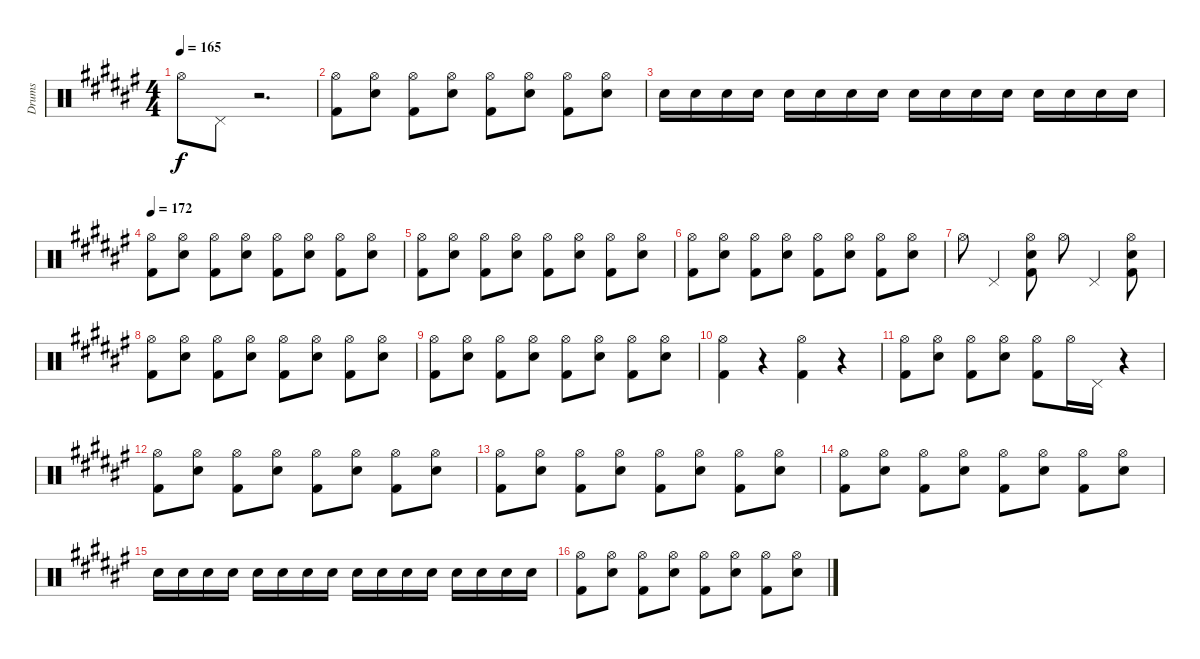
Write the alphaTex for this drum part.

\track ("Drums" "Drums") {instrument percussion}
\staff {score}
\articulation defaults
\ts (4 4)
\tempo 165
\clef neutral
\ks d#minor "Hi-Hat (open)".8{dy f} "Pedal Hi-Hat (hit)".8
r.2{d} |
("Hi-Hat (open)" "Kick (hit) 2").8 ("Hi-Hat (open)" "Electric Snare (hit)").8 ("Hi-Hat (open)" "Kick (hit) 2").8 ("Hi-Hat (open)" "Electric Snare (hit)").8 ("Hi-Hat (open)" "Kick (hit) 2").8 ("Hi-Hat (open)" "Electric Snare (hit)").8 ("Hi-Hat (open)" "Kick (hit) 2").8 ("Hi-Hat (open)" "Electric Snare (hit)").8 |
"Electric Snare (hit)".16 "Electric Snare (hit)".16 "Electric Snare (hit)".16 "Electric Snare (hit)".16 "Electric Snare (hit)".16 "Electric Snare (hit)".16 "Electric Snare (hit)".16 "Electric Snare (hit)".16 "Electric Snare (hit)".16 "Electric Snare (hit)".16 "Electric Snare (hit)".16 "Electric Snare (hit)".16 "Electric Snare (hit)".16 "Electric Snare (hit)".16 "Electric Snare (hit)".16 "Electric Snare (hit)".16 |
\tempo 172
("Hi-Hat (open)" "Kick (hit) 2").8 ("Hi-Hat (open)" "Electric Snare (hit)").8 ("Hi-Hat (open)" "Kick (hit) 2").8 ("Hi-Hat (open)" "Electric Snare (hit)").8 ("Hi-Hat (open)" "Kick (hit) 2").8 ("Hi-Hat (open)" "Electric Snare (hit)").8 ("Hi-Hat (open)" "Kick (hit) 2").8 ("Hi-Hat (open)" "Electric Snare (hit)").8 |
("Hi-Hat (open)" "Kick (hit) 2").8 ("Hi-Hat (open)" "Electric Snare (hit)").8 ("Hi-Hat (open)" "Kick (hit) 2").8 ("Hi-Hat (open)" "Electric Snare (hit)").8 ("Hi-Hat (open)" "Kick (hit) 2").8 ("Hi-Hat (open)" "Electric Snare (hit)").8 ("Hi-Hat (open)" "Kick (hit) 2").8 ("Hi-Hat (open)" "Electric Snare (hit)").8 |
("Hi-Hat (open)" "Kick (hit) 2").8 ("Hi-Hat (open)" "Electric Snare (hit)").8 ("Hi-Hat (open)" "Kick (hit) 2").8 ("Hi-Hat (open)" "Electric Snare (hit)").8 ("Hi-Hat (open)" "Kick (hit) 2").8 ("Hi-Hat (open)" "Electric Snare (hit)").8 ("Hi-Hat (open)" "Kick (hit) 2").8 ("Hi-Hat (open)" "Electric Snare (hit)").8 |
"Hi-Hat (open)".8 "Pedal Hi-Hat (hit)".4 ("Hi-Hat (open)" "Electric Snare (hit)" "Kick (hit) 2").8 "Hi-Hat (open)".8 "Pedal Hi-Hat (hit)".4 ("Hi-Hat (open)" "Electric Snare (hit)" "Kick (hit) 2").8 |
("Hi-Hat (open)" "Kick (hit) 2").8 ("Hi-Hat (open)" "Electric Snare (hit)").8 ("Hi-Hat (open)" "Kick (hit) 2").8 ("Hi-Hat (open)" "Electric Snare (hit)").8 ("Hi-Hat (open)" "Kick (hit) 2").8 ("Hi-Hat (open)" "Electric Snare (hit)").8 ("Hi-Hat (open)" "Kick (hit) 2").8 ("Hi-Hat (open)" "Electric Snare (hit)").8 |
("Hi-Hat (open)" "Kick (hit) 2").8 ("Hi-Hat (open)" "Electric Snare (hit)").8 ("Hi-Hat (open)" "Kick (hit) 2").8 ("Hi-Hat (open)" "Electric Snare (hit)").8 ("Hi-Hat (open)" "Kick (hit) 2").8 ("Hi-Hat (open)" "Electric Snare (hit)").8 ("Hi-Hat (open)" "Kick (hit) 2").8 ("Hi-Hat (open)" "Electric Snare (hit)").8 |
("Hi-Hat (open)" "Kick (hit) 2").4 r.4 ("Hi-Hat (open)" "Kick (hit) 2").4 r.4 |
("Hi-Hat (open)" "Kick (hit) 2").8 ("Hi-Hat (open)" "Electric Snare (hit)").8 ("Hi-Hat (open)" "Kick (hit) 2").8 ("Hi-Hat (open)" "Electric Snare (hit)").8 ("Hi-Hat (open)" "Kick (hit) 2").8 "Hi-Hat (open)".16 "Pedal Hi-Hat (hit)".16 r.4 |
("Hi-Hat (open)" "Kick (hit) 2").8 ("Hi-Hat (open)" "Electric Snare (hit)").8 ("Hi-Hat (open)" "Kick (hit) 2").8 ("Hi-Hat (open)" "Electric Snare (hit)").8 ("Hi-Hat (open)" "Kick (hit) 2").8 ("Hi-Hat (open)" "Electric Snare (hit)").8 ("Hi-Hat (open)" "Kick (hit) 2").8 ("Hi-Hat (open)" "Electric Snare (hit)").8 |
("Hi-Hat (open)" "Kick (hit) 2").8 ("Hi-Hat (open)" "Electric Snare (hit)").8 ("Hi-Hat (open)" "Kick (hit) 2").8 ("Hi-Hat (open)" "Electric Snare (hit)").8 ("Hi-Hat (open)" "Kick (hit) 2").8 ("Hi-Hat (open)" "Electric Snare (hit)").8 ("Hi-Hat (open)" "Kick (hit) 2").8 ("Hi-Hat (open)" "Electric Snare (hit)").8 |
("Hi-Hat (open)" "Kick (hit) 2").8 ("Hi-Hat (open)" "Electric Snare (hit)").8 ("Hi-Hat (open)" "Kick (hit) 2").8 ("Hi-Hat (open)" "Electric Snare (hit)").8 ("Hi-Hat (open)" "Kick (hit) 2").8 ("Hi-Hat (open)" "Electric Snare (hit)").8 ("Hi-Hat (open)" "Kick (hit) 2").8 ("Hi-Hat (open)" "Electric Snare (hit)").8 |
"Electric Snare (hit)".16 "Electric Snare (hit)".16 "Electric Snare (hit)".16 "Electric Snare (hit)".16 "Electric Snare (hit)".16 "Electric Snare (hit)".16 "Electric Snare (hit)".16 "Electric Snare (hit)".16 "Electric Snare (hit)".16 "Electric Snare (hit)".16 "Electric Snare (hit)".16 "Electric Snare (hit)".16 "Electric Snare (hit)".16 "Electric Snare (hit)".16 "Electric Snare (hit)".16 "Electric Snare (hit)".16 |
("Hi-Hat (open)" "Kick (hit) 2").8 ("Hi-Hat (open)" "Electric Snare (hit)").8 ("Hi-Hat (open)" "Kick (hit) 2").8 ("Hi-Hat (open)" "Electric Snare (hit)").8 ("Hi-Hat (open)" "Kick (hit) 2").8 ("Hi-Hat (open)" "Electric Snare (hit)").8 ("Hi-Hat (open)" "Kick (hit) 2").8 ("Hi-Hat (open)" "Electric Snare (hit)").8
